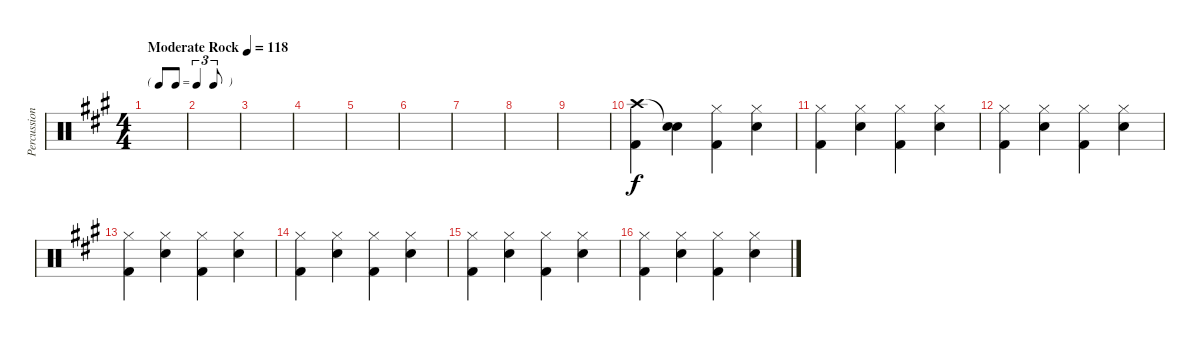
\track ("Percussion" "Percussion") {instrument percussion}
\staff {score}
\articulation defaults
\ts (4 4)
\tf triplet8th
\tempo (118 "Moderate Rock")
\clef neutral
\ks a
|
|
|
|
|
|
|
|
|
("Crash high (hit)" "Kick (hit) 2").4 ("Snare (hit)"{t} "Snare (hit) 2").4 ("Hi-Hat (closed)" "Kick (hit) 2").4 ("Hi-Hat (closed)" "Snare (hit) 2").4 |
("Hi-Hat (closed)" "Kick (hit) 2").4 ("Hi-Hat (closed)" "Snare (hit) 2").4 ("Hi-Hat (closed)" "Kick (hit) 2").4 ("Hi-Hat (closed)" "Snare (hit) 2").4 |
("Hi-Hat (closed)" "Kick (hit) 2").4 ("Hi-Hat (closed)" "Snare (hit) 2").4 ("Hi-Hat (closed)" "Kick (hit) 2").4 ("Hi-Hat (closed)" "Snare (hit) 2").4 |
("Hi-Hat (closed)" "Kick (hit) 2").4 ("Hi-Hat (closed)" "Snare (hit) 2").4 ("Hi-Hat (closed)" "Kick (hit) 2").4 ("Hi-Hat (closed)" "Snare (hit) 2").4 |
("Hi-Hat (closed)" "Kick (hit) 2").4 ("Hi-Hat (closed)" "Snare (hit) 2").4 ("Hi-Hat (closed)" "Kick (hit) 2").4 ("Hi-Hat (closed)" "Snare (hit) 2").4 |
("Hi-Hat (closed)" "Kick (hit) 2").4 ("Hi-Hat (closed)" "Snare (hit) 2").4 ("Hi-Hat (closed)" "Kick (hit) 2").4 ("Hi-Hat (closed)" "Snare (hit) 2").4 |
("Hi-Hat (closed)" "Kick (hit) 2").4 ("Hi-Hat (closed)" "Snare (hit) 2").4 ("Hi-Hat (closed)" "Kick (hit) 2").4 ("Hi-Hat (closed)" "Snare (hit) 2").4
